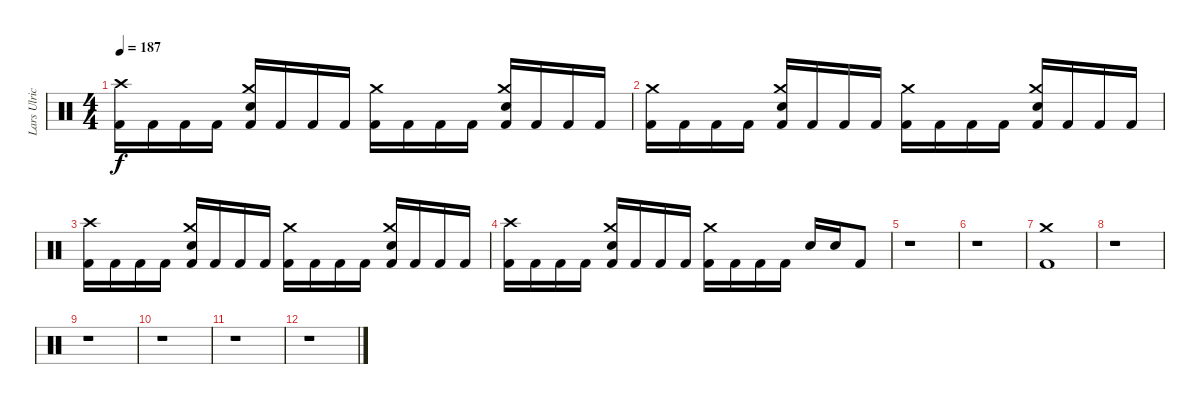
\track ("Lars Ulrich" "Lars Ulric") {instrument percussion}
\staff {score}
\articulation defaults
\ts (4 4)
\tempo 187
\clef neutral
\ks c
("Crash high (hit)" "Kick (hit) 2").16{dy f} "Kick (hit) 2".16 "Kick (hit) 2".16 "Kick (hit) 2".16 ("Crash medium (hit)" "Snare (hit) 2" "Kick (hit) 2").16 "Kick (hit) 2".16 "Kick (hit) 2".16 "Kick (hit) 2".16 ("Crash medium (hit)" "Kick (hit) 2").16 "Kick (hit) 2".16 "Kick (hit) 2".16 "Kick (hit) 2".16 ("Crash medium (hit)" "Snare (hit) 2" "Kick (hit) 2").16 "Kick (hit) 2".16 "Kick (hit) 2".16 "Kick (hit) 2".16 |
("Crash medium (hit)" "Kick (hit) 2").16 "Kick (hit) 2".16 "Kick (hit) 2".16 "Kick (hit) 2".16 ("Crash medium (hit)" "Snare (hit) 2" "Kick (hit) 2").16 "Kick (hit) 2".16 "Kick (hit) 2".16 "Kick (hit) 2".16 ("Crash medium (hit)" "Kick (hit) 2").16 "Kick (hit) 2".16 "Kick (hit) 2".16 "Kick (hit) 2".16 ("Crash medium (hit)" "Snare (hit) 2" "Kick (hit) 2").16 "Kick (hit) 2".16 "Kick (hit) 2".16 "Kick (hit) 2".16 |
("Crash high (hit)" "Kick (hit) 2").16 "Kick (hit) 2".16 "Kick (hit) 2".16 "Kick (hit) 2".16 ("Crash medium (hit)" "Snare (hit) 2" "Kick (hit) 2").16 "Kick (hit) 2".16 "Kick (hit) 2".16 "Kick (hit) 2".16 ("Crash medium (hit)" "Kick (hit) 2").16 "Kick (hit) 2".16 "Kick (hit) 2".16 "Kick (hit) 2".16 ("Crash medium (hit)" "Snare (hit) 2" "Kick (hit) 2").16 "Kick (hit) 2".16 "Kick (hit) 2".16 "Kick (hit) 2".16 |
("Crash high (hit)" "Kick (hit) 2").16 "Kick (hit) 2".16 "Kick (hit) 2".16 "Kick (hit) 2".16 ("Crash medium (hit)" "Snare (hit) 2" "Kick (hit) 2").16 "Kick (hit) 2".16 "Kick (hit) 2".16 "Kick (hit) 2".16 ("Crash medium (hit)" "Kick (hit) 2").16 "Kick (hit) 2".16 "Kick (hit) 2".16 "Kick (hit) 2".16 "Snare (hit) 2".16 "Snare (hit) 2".16 "Kick (hit) 2".8 |
r.1 |
r.1 |
("Crash medium (hit)" "Kick (hit) 2").1 |
r.1 |
r.1 |
r.1 |
r.1 |
r.1
